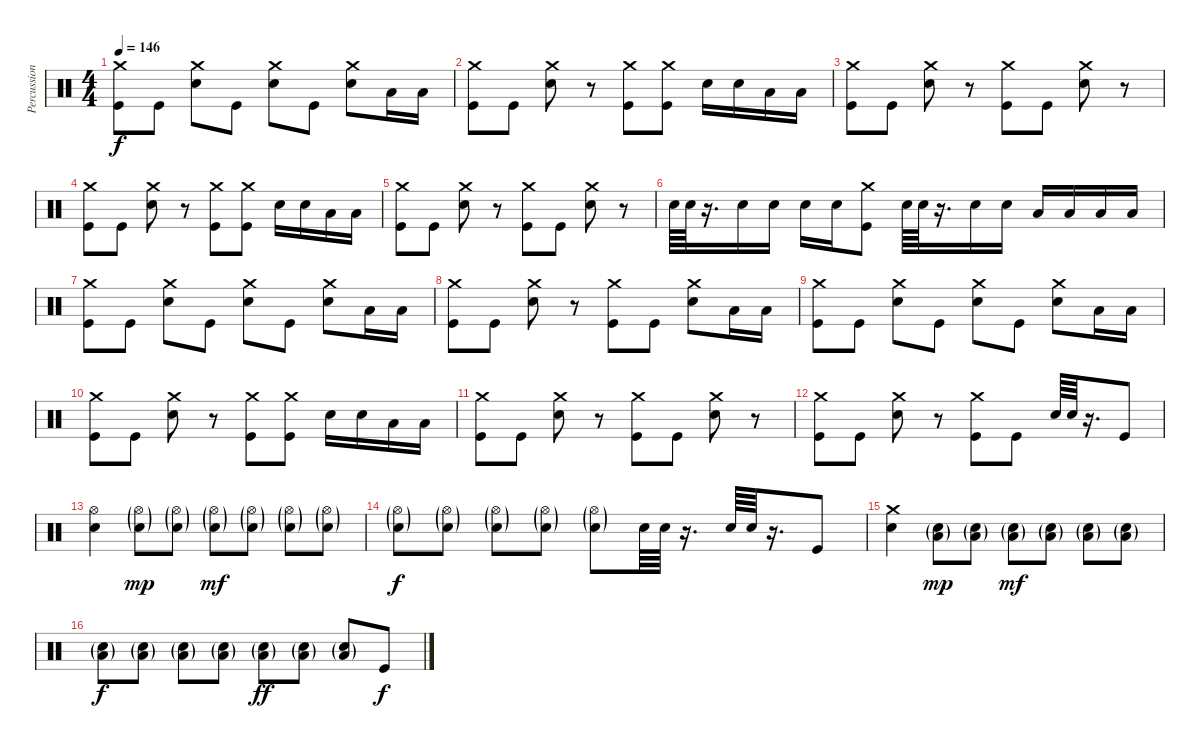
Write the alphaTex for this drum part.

\track ("Percussion" "Percussion") {instrument percussion}
\staff {score}
\articulation defaults
\ts (4 4)
\tempo 146
\clef neutral
\ks c
("Crash medium (hit)" "Kick (hit)").8{dy f} "Kick (hit)".8 ("Crash medium (hit)" "Snare (hit) 2").8 "Kick (hit)".8 ("Crash medium (hit)" "Snare (hit) 2").8 "Kick (hit)".8 ("Crash medium (hit)" "Snare (hit) 2").8 "Low Floor Tom (hit)".16 "Low Floor Tom (hit)".16 |
("Crash medium (hit)" "Kick (hit)").8 "Kick (hit)".8 ("Crash medium (hit)" "Snare (hit) 2").8 r.8 ("Crash medium (hit)" "Kick (hit)").8 ("Crash medium (hit)" "Kick (hit)").8 "Snare (hit) 2".16 "Snare (hit) 2".16 "Low Tom (hit)".16 "Low Floor Tom (hit)".16 |
("Crash medium (hit)" "Kick (hit)").8 "Kick (hit)".8 ("Crash medium (hit)" "Snare (hit) 2").8 r.8 ("Crash medium (hit)" "Kick (hit)").8 "Kick (hit)".8 ("Crash medium (hit)" "Snare (hit) 2").8 r.8 |
("Crash medium (hit)" "Kick (hit)").8 "Kick (hit)".8 ("Crash medium (hit)" "Snare (hit) 2").8 r.8 ("Crash medium (hit)" "Kick (hit)").8 ("Crash medium (hit)" "Kick (hit)").8 "Snare (hit) 2".16 "Snare (hit) 2".16 "Low Tom (hit)".16 "Low Floor Tom (hit)".16 |
("Crash medium (hit)" "Kick (hit)").8 "Kick (hit)".8 ("Crash medium (hit)" "Snare (hit) 2").8 r.8 ("Crash medium (hit)" "Kick (hit)").8 "Kick (hit)".8 ("Crash medium (hit)" "Snare (hit) 2").8 r.8 |
"Snare (hit) 2".64 "Snare (hit) 2".64 r.16{d} "Snare (hit) 2".16 "Snare (hit) 2".16 "Snare (hit) 2".16 "Snare (hit) 2".16 ("Crash medium (hit)" "Kick (hit)").8 "Snare (hit) 2".64 "Snare (hit) 2".64 r.16{d} "Snare (hit) 2".16 "Snare (hit) 2".16 "Low Tom (hit)".16 "Low Tom (hit)".16 "Low Floor Tom (hit)".16 "Low Floor Tom (hit)".16 |
("Crash medium (hit)" "Kick (hit)").8 "Kick (hit)".8 ("Crash medium (hit)" "Snare (hit) 2").8 "Kick (hit)".8 ("Crash medium (hit)" "Snare (hit) 2").8 "Kick (hit)".8 ("Crash medium (hit)" "Snare (hit) 2").8 "Low Floor Tom (hit)".16 "Low Floor Tom (hit)".16 |
("Crash medium (hit)" "Kick (hit)").8 "Kick (hit)".8 ("Crash medium (hit)" "Snare (hit) 2").8 r.8 ("Crash medium (hit)" "Kick (hit)").8 "Kick (hit)".8 ("Crash medium (hit)" "Snare (hit) 2").8 "Low Floor Tom (hit)".16 "Low Floor Tom (hit)".16 |
("Crash medium (hit)" "Kick (hit)").8 "Kick (hit)".8 ("Crash medium (hit)" "Snare (hit) 2").8 "Kick (hit)".8 ("Crash medium (hit)" "Snare (hit) 2").8 "Kick (hit)".8 ("Crash medium (hit)" "Snare (hit) 2").8 "Low Floor Tom (hit)".16 "Low Floor Tom (hit)".16 |
("Crash medium (hit)" "Kick (hit)").8 "Kick (hit)".8 ("Crash medium (hit)" "Snare (hit) 2").8 r.8 ("Crash medium (hit)" "Kick (hit)").8 ("Crash medium (hit)" "Kick (hit)").8 "Snare (hit) 2".16 "Snare (hit) 2".16 "Low Tom (hit)".16 "Low Floor Tom (hit)".16 |
("Crash medium (hit)" "Kick (hit)").8 "Kick (hit)".8 ("Crash medium (hit)" "Snare (hit) 2").8 r.8 ("Crash medium (hit)" "Kick (hit)").8 "Kick (hit)".8 ("Crash medium (hit)" "Snare (hit) 2").8 r.8 |
("Crash medium (hit)" "Kick (hit)").8 "Kick (hit)".8 ("Crash medium (hit)" "Snare (hit) 2").8 r.8 ("Crash medium (hit)" "Kick (hit)").8 "Kick (hit)".8 "Snare (hit) 2".64 "Snare (hit) 2".64 r.16{d} "Kick (hit)".8 |
("Hi-Hat (open)" "Snare (hit) 2").4 ("Hi-Hat (open)"{g} "Snare (hit) 2"{g}).8{dy mp} ("Hi-Hat (open)"{g} "Snare (hit) 2"{g}).8 ("Hi-Hat (open)"{g} "Snare (hit) 2"{g}).8{dy mf} ("Hi-Hat (open)"{g} "Snare (hit) 2"{g}).8 ("Hi-Hat (open)"{g} "Snare (hit) 2"{g}).8 ("Hi-Hat (open)"{g} "Snare (hit) 2"{g}).8 |
("Hi-Hat (open)"{g} "Snare (hit) 2"{g}).8{dy f} ("Hi-Hat (open)"{g} "Snare (hit) 2"{g}).8 ("Hi-Hat (open)"{g} "Snare (hit) 2"{g}).8 ("Hi-Hat (open)"{g} "Snare (hit) 2"{g}).8 ("Hi-Hat (open)"{g} "Snare (hit) 2"{g}).8 "Snare (hit) 2".64 "Snare (hit) 2".64 r.16{d} "Snare (hit) 2".64 "Snare (hit) 2".64 r.16{d} "Kick (hit)".8 |
("Crash medium (hit)" "Snare (hit) 2").4 ("Low Floor Tom (hit)"{g} "Snare (hit) 2"{g}).8{dy mp} ("Low Floor Tom (hit)"{g} "Snare (hit) 2"{g}).8 ("Low Floor Tom (hit)"{g} "Snare (hit) 2"{g}).8{dy mf} ("Low Floor Tom (hit)"{g} "Snare (hit) 2"{g}).8 ("Low Floor Tom (hit)"{g} "Snare (hit) 2"{g}).8 ("Low Floor Tom (hit)"{g} "Snare (hit) 2"{g}).8 |
("Low Floor Tom (hit)"{g} "Snare (hit) 2"{g}).8{dy f} ("Low Floor Tom (hit)"{g} "Snare (hit) 2"{g}).8 ("Low Floor Tom (hit)"{g} "Snare (hit) 2"{g}).8 ("Low Floor Tom (hit)"{g} "Snare (hit) 2"{g}).8 ("Low Floor Tom (hit)"{g} "Snare (hit) 2"{g}).8{dy ff} ("Low Floor Tom (hit)"{g} "Snare (hit) 2"{g}).8 ("Low Floor Tom (hit)"{g} "Snare (hit) 2"{g}).8 "Kick (hit)".8{dy f}
